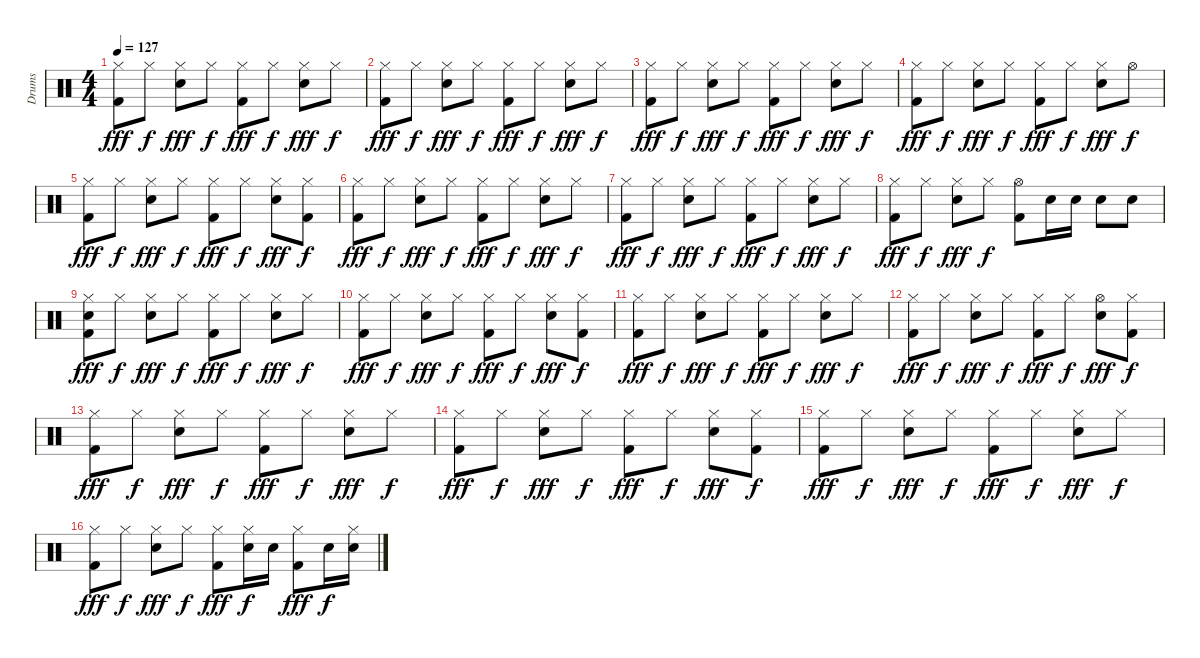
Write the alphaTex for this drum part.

\track ("Drums" "Drums") {instrument percussion}
\staff {score}
\articulation defaults
\ts (4 4)
\tempo 127
\clef neutral
\ks c
("Hi-Hat (closed)" "Kick (hit) 2").8{dy fff} "Hi-Hat (closed)".8{dy f} ("Hi-Hat (closed)" "Snare (hit) 2").8{dy fff} "Hi-Hat (closed)".8{dy f} ("Hi-Hat (closed)" "Kick (hit) 2").8{dy fff} "Hi-Hat (closed)".8{dy f} ("Hi-Hat (closed)" "Snare (hit) 2").8{dy fff} "Hi-Hat (closed)".8{dy f} |
("Hi-Hat (closed)" "Kick (hit) 2").8{dy fff} "Hi-Hat (closed)".8{dy f} ("Hi-Hat (closed)" "Snare (hit) 2").8{dy fff} "Hi-Hat (closed)".8{dy f} ("Hi-Hat (closed)" "Kick (hit) 2").8{dy fff} "Hi-Hat (closed)".8{dy f} ("Hi-Hat (closed)" "Snare (hit) 2").8{dy fff} "Hi-Hat (closed)".8{dy f} |
("Hi-Hat (closed)" "Kick (hit) 2").8{dy fff} "Hi-Hat (closed)".8{dy f} ("Hi-Hat (closed)" "Snare (hit) 2").8{dy fff} "Hi-Hat (closed)".8{dy f} ("Hi-Hat (closed)" "Kick (hit) 2").8{dy fff} "Hi-Hat (closed)".8{dy f} ("Hi-Hat (closed)" "Snare (hit) 2").8{dy fff} "Hi-Hat (closed)".8{dy f} |
("Hi-Hat (closed)" "Kick (hit) 2").8{dy fff} "Hi-Hat (closed)".8{dy f} ("Hi-Hat (closed)" "Snare (hit) 2").8{dy fff} "Hi-Hat (closed)".8{dy f} ("Hi-Hat (closed)" "Kick (hit) 2").8{dy fff} "Hi-Hat (closed)".8{dy f} ("Hi-Hat (closed)" "Snare (hit) 2").8{dy fff} "Hi-Hat (open)".8{dy f} |
("Hi-Hat (closed)" "Kick (hit) 2").8{dy fff} "Hi-Hat (closed)".8{dy f} ("Hi-Hat (closed)" "Snare (hit) 2").8{dy fff} "Hi-Hat (closed)".8{dy f} ("Hi-Hat (closed)" "Kick (hit) 2").8{dy fff} "Hi-Hat (closed)".8{dy f} ("Hi-Hat (closed)" "Snare (hit) 2").8{dy fff} ("Hi-Hat (closed)" "Kick (hit) 2").8{dy f} |
("Hi-Hat (closed)" "Kick (hit) 2").8{dy fff} "Hi-Hat (closed)".8{dy f} ("Hi-Hat (closed)" "Snare (hit) 2").8{dy fff} "Hi-Hat (closed)".8{dy f} ("Hi-Hat (closed)" "Kick (hit) 2").8{dy fff} "Hi-Hat (closed)".8{dy f} ("Hi-Hat (closed)" "Snare (hit) 2").8{dy fff} "Hi-Hat (closed)".8{dy f} |
("Hi-Hat (closed)" "Kick (hit) 2").8{dy fff} "Hi-Hat (closed)".8{dy f} ("Hi-Hat (closed)" "Snare (hit) 2").8{dy fff} "Hi-Hat (closed)".8{dy f} ("Hi-Hat (closed)" "Kick (hit) 2").8{dy fff} "Hi-Hat (closed)".8{dy f} ("Hi-Hat (closed)" "Snare (hit) 2").8{dy fff} "Hi-Hat (closed)".8{dy f} |
("Hi-Hat (closed)" "Kick (hit) 2").8{dy fff} "Hi-Hat (closed)".8{dy f} ("Hi-Hat (closed)" "Snare (hit) 2").8{dy fff} "Hi-Hat (closed)".8{dy f} ("Hi-Hat (open)" "Kick (hit) 2").8 "Snare (hit) 2".16 "Snare (hit) 2".16 "Snare (hit) 2".8 "Snare (hit) 2".8 |
("Hi-Hat (closed)" "Snare (hit) 2" "Kick (hit) 2").8{dy fff} "Hi-Hat (closed)".8{dy f} ("Hi-Hat (closed)" "Snare (hit) 2").8{dy fff} "Hi-Hat (closed)".8{dy f} ("Hi-Hat (closed)" "Kick (hit) 2").8{dy fff} "Hi-Hat (closed)".8{dy f} ("Hi-Hat (closed)" "Snare (hit) 2").8{dy fff} "Hi-Hat (closed)".8{dy f} |
("Hi-Hat (closed)" "Kick (hit) 2").8{dy fff} "Hi-Hat (closed)".8{dy f} ("Hi-Hat (closed)" "Snare (hit) 2").8{dy fff} "Hi-Hat (closed)".8{dy f} ("Hi-Hat (closed)" "Kick (hit) 2").8{dy fff} "Hi-Hat (closed)".8{dy f} ("Hi-Hat (closed)" "Snare (hit) 2").8{dy fff} ("Hi-Hat (closed)" "Kick (hit) 2").8{dy f} |
("Hi-Hat (closed)" "Kick (hit) 2").8{dy fff} "Hi-Hat (closed)".8{dy f} ("Hi-Hat (closed)" "Snare (hit) 2").8{dy fff} "Hi-Hat (closed)".8{dy f} ("Hi-Hat (closed)" "Kick (hit) 2").8{dy fff} "Hi-Hat (closed)".8{dy f} ("Hi-Hat (closed)" "Snare (hit) 2").8{dy fff} "Hi-Hat (closed)".8{dy f} |
("Hi-Hat (closed)" "Kick (hit) 2").8{dy fff} "Hi-Hat (closed)".8{dy f} ("Hi-Hat (closed)" "Snare (hit) 2").8{dy fff} "Hi-Hat (closed)".8{dy f} ("Hi-Hat (closed)" "Kick (hit) 2").8{dy fff} "Hi-Hat (closed)".8{dy f} ("Hi-Hat (open)" "Snare (hit) 2").8{dy fff} ("Hi-Hat (closed)" "Kick (hit) 2").8{dy f} |
("Hi-Hat (closed)" "Kick (hit) 2").8{dy fff} "Hi-Hat (closed)".8{dy f} ("Hi-Hat (closed)" "Snare (hit) 2").8{dy fff} "Hi-Hat (closed)".8{dy f} ("Hi-Hat (closed)" "Kick (hit) 2").8{dy fff} "Hi-Hat (closed)".8{dy f} ("Hi-Hat (closed)" "Snare (hit) 2").8{dy fff} "Hi-Hat (closed)".8{dy f} |
("Hi-Hat (closed)" "Kick (hit) 2").8{dy fff} "Hi-Hat (closed)".8{dy f} ("Hi-Hat (closed)" "Snare (hit) 2").8{dy fff} "Hi-Hat (closed)".8{dy f} ("Hi-Hat (closed)" "Kick (hit) 2").8{dy fff} "Hi-Hat (closed)".8{dy f} ("Hi-Hat (closed)" "Snare (hit) 2").8{dy fff} ("Hi-Hat (closed)" "Kick (hit) 2").8{dy f} |
("Hi-Hat (closed)" "Kick (hit) 2").8{dy fff} "Hi-Hat (closed)".8{dy f} ("Hi-Hat (closed)" "Snare (hit) 2").8{dy fff} "Hi-Hat (closed)".8{dy f} ("Hi-Hat (closed)" "Kick (hit) 2").8{dy fff} "Hi-Hat (closed)".8{dy f} ("Hi-Hat (closed)" "Snare (hit) 2").8{dy fff} "Hi-Hat (closed)".8{dy f} |
("Hi-Hat (closed)" "Kick (hit) 2").8{dy fff} "Hi-Hat (closed)".8{dy f} ("Hi-Hat (closed)" "Snare (hit) 2").8{dy fff} "Hi-Hat (closed)".8{dy f} ("Hi-Hat (closed)" "Kick (hit) 2").8{dy fff} ("Hi-Hat (closed)" "Snare (hit) 2").16{dy f} "Snare (hit) 2".16 ("Hi-Hat (closed)" "Kick (hit) 2").8{dy fff} "Snare (hit) 2".16{dy f} ("Hi-Hat (closed)" "Snare (hit) 2").16
